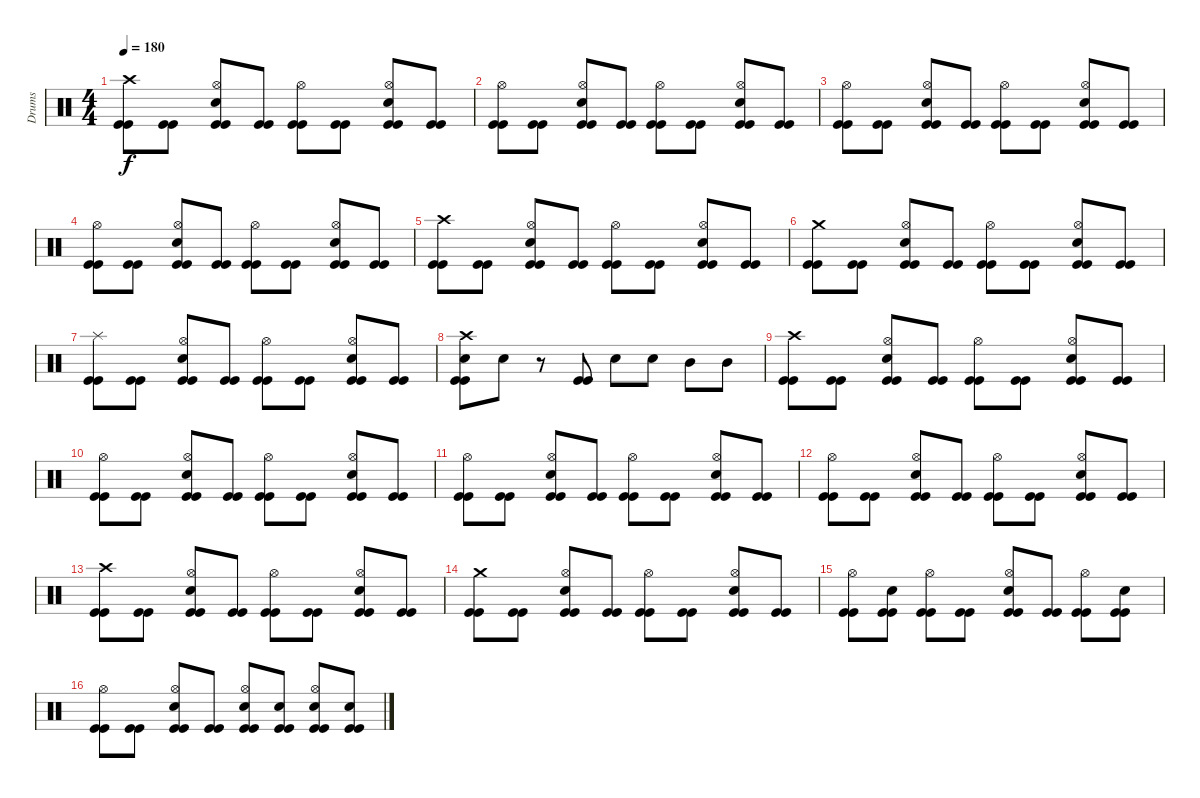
\track ("Drums" "Drums") {instrument percussion}
\staff {score}
\articulation defaults
\ts (4 4)
\tempo 180
\clef neutral
\ks c
("Crash high (hit)" "Kick (hit)" "Kick (hit)").8{dy f} ("Kick (hit)" "Kick (hit)").8 ("Hi-Hat (open)" "Kick (hit)" "Kick (hit)" "Snare (hit) 2").8 ("Kick (hit)" "Kick (hit)").8 ("Hi-Hat (open)" "Kick (hit)" "Kick (hit)").8 ("Kick (hit)" "Kick (hit)").8 ("Hi-Hat (open)" "Kick (hit)" "Kick (hit)" "Snare (hit) 2").8 ("Kick (hit)" "Kick (hit)").8 |
("Hi-Hat (open)" "Kick (hit)" "Kick (hit)").8 ("Kick (hit)" "Kick (hit)").8 ("Hi-Hat (open)" "Kick (hit)" "Kick (hit)" "Snare (hit) 2").8 ("Kick (hit)" "Kick (hit)").8 ("Hi-Hat (open)" "Kick (hit)" "Kick (hit)").8 ("Kick (hit)" "Kick (hit)").8 ("Hi-Hat (open)" "Kick (hit)" "Kick (hit)" "Snare (hit) 2").8 ("Kick (hit)" "Kick (hit)").8 |
("Hi-Hat (open)" "Kick (hit)" "Kick (hit)").8 ("Kick (hit)" "Kick (hit)").8 ("Hi-Hat (open)" "Kick (hit)" "Kick (hit)" "Snare (hit) 2").8 ("Kick (hit)" "Kick (hit)").8 ("Hi-Hat (open)" "Kick (hit)" "Kick (hit)").8 ("Kick (hit)" "Kick (hit)").8 ("Hi-Hat (open)" "Kick (hit)" "Kick (hit)" "Snare (hit) 2").8 ("Kick (hit)" "Kick (hit)").8 |
("Hi-Hat (open)" "Kick (hit)" "Kick (hit)").8 ("Kick (hit)" "Kick (hit)").8 ("Hi-Hat (open)" "Kick (hit)" "Kick (hit)" "Snare (hit) 2").8 ("Kick (hit)" "Kick (hit)").8 ("Hi-Hat (open)" "Kick (hit)" "Kick (hit)").8 ("Kick (hit)" "Kick (hit)").8 ("Hi-Hat (open)" "Kick (hit)" "Kick (hit)" "Snare (hit) 2").8 ("Kick (hit)" "Kick (hit)").8 |
("Crash high (hit)" "Kick (hit)" "Kick (hit)").8 ("Kick (hit)" "Kick (hit)").8 ("Hi-Hat (open)" "Kick (hit)" "Kick (hit)" "Snare (hit) 2").8 ("Kick (hit)" "Kick (hit)").8 ("Hi-Hat (open)" "Kick (hit)" "Kick (hit)").8 ("Kick (hit)" "Kick (hit)").8 ("Hi-Hat (open)" "Kick (hit)" "Kick (hit)" "Snare (hit) 2").8 ("Kick (hit)" "Kick (hit)").8 |
("Crash medium (hit)" "Kick (hit)" "Kick (hit)").8 ("Kick (hit)" "Kick (hit)").8 ("Hi-Hat (open)" "Kick (hit)" "Kick (hit)" "Snare (hit) 2").8 ("Kick (hit)" "Kick (hit)").8 ("Hi-Hat (open)" "Kick (hit)" "Kick (hit)").8 ("Kick (hit)" "Kick (hit)").8 ("Hi-Hat (open)" "Kick (hit)" "Kick (hit)" "Snare (hit) 2").8 ("Kick (hit)" "Kick (hit)").8 |
("Splash (hit)" "Kick (hit)" "Kick (hit)").8 ("Kick (hit)" "Kick (hit)").8 ("Hi-Hat (open)" "Kick (hit)" "Kick (hit)" "Snare (hit) 2").8 ("Kick (hit)" "Kick (hit)").8 ("Hi-Hat (open)" "Kick (hit)" "Kick (hit)").8 ("Kick (hit)" "Kick (hit)").8 ("Hi-Hat (open)" "Kick (hit)" "Kick (hit)" "Snare (hit) 2").8 ("Kick (hit)" "Kick (hit)").8 |
("Crash high (hit)" "Snare (hit) 2" "Kick (hit)" "Kick (hit)").8 "Snare (hit) 2".8 r.8 ("Kick (hit)" "Kick (hit)").8 "Snare (hit) 2".8 "Snare (hit) 2".8 "Mid Tom (hit)".8 "Mid Tom (hit)".8 |
("Crash high (hit)" "Kick (hit)" "Kick (hit)").8 ("Kick (hit)" "Kick (hit)").8 ("Hi-Hat (open)" "Kick (hit)" "Kick (hit)" "Snare (hit) 2").8 ("Kick (hit)" "Kick (hit)").8 ("Hi-Hat (open)" "Kick (hit)" "Kick (hit)").8 ("Kick (hit)" "Kick (hit)").8 ("Hi-Hat (open)" "Kick (hit)" "Kick (hit)" "Snare (hit) 2").8 ("Kick (hit)" "Kick (hit)").8 |
("Hi-Hat (open)" "Kick (hit)" "Kick (hit)").8 ("Kick (hit)" "Kick (hit)").8 ("Hi-Hat (open)" "Kick (hit)" "Kick (hit)" "Snare (hit) 2").8 ("Kick (hit)" "Kick (hit)").8 ("Hi-Hat (open)" "Kick (hit)" "Kick (hit)").8 ("Kick (hit)" "Kick (hit)").8 ("Hi-Hat (open)" "Kick (hit)" "Kick (hit)" "Snare (hit) 2").8 ("Kick (hit)" "Kick (hit)").8 |
("Hi-Hat (open)" "Kick (hit)" "Kick (hit)").8 ("Kick (hit)" "Kick (hit)").8 ("Hi-Hat (open)" "Kick (hit)" "Kick (hit)" "Snare (hit) 2").8 ("Kick (hit)" "Kick (hit)").8 ("Hi-Hat (open)" "Kick (hit)" "Kick (hit)").8 ("Kick (hit)" "Kick (hit)").8 ("Hi-Hat (open)" "Kick (hit)" "Kick (hit)" "Snare (hit) 2").8 ("Kick (hit)" "Kick (hit)").8 |
("Hi-Hat (open)" "Kick (hit)" "Kick (hit)").8 ("Kick (hit)" "Kick (hit)").8 ("Hi-Hat (open)" "Kick (hit)" "Kick (hit)" "Snare (hit) 2").8 ("Kick (hit)" "Kick (hit)").8 ("Hi-Hat (open)" "Kick (hit)" "Kick (hit)").8 ("Kick (hit)" "Kick (hit)").8 ("Hi-Hat (open)" "Kick (hit)" "Kick (hit)" "Snare (hit) 2").8 ("Kick (hit)" "Kick (hit)").8 |
("Crash high (hit)" "Kick (hit)" "Kick (hit)").8 ("Kick (hit)" "Kick (hit)").8 ("Hi-Hat (open)" "Kick (hit)" "Kick (hit)" "Snare (hit) 2").8 ("Kick (hit)" "Kick (hit)").8 ("Hi-Hat (open)" "Kick (hit)" "Kick (hit)").8 ("Kick (hit)" "Kick (hit)").8 ("Hi-Hat (open)" "Kick (hit)" "Kick (hit)" "Snare (hit) 2").8 ("Kick (hit)" "Kick (hit)").8 |
("Crash medium (hit)" "Kick (hit)" "Kick (hit)").8 ("Kick (hit)" "Kick (hit)").8 ("Hi-Hat (open)" "Kick (hit)" "Kick (hit)" "Snare (hit) 2").8 ("Kick (hit)" "Kick (hit)").8 ("Hi-Hat (open)" "Kick (hit)" "Kick (hit)").8 ("Kick (hit)" "Kick (hit)").8 ("Hi-Hat (open)" "Kick (hit)" "Kick (hit)" "Snare (hit) 2").8 ("Kick (hit)" "Kick (hit)").8 |
("Hi-Hat (open)" "Kick (hit)" "Kick (hit)").8 ("Kick (hit)" "Kick (hit)" "Snare (hit) 2").8 ("Hi-Hat (open)" "Kick (hit)" "Kick (hit)").8 ("Kick (hit)" "Kick (hit)").8 ("Hi-Hat (open)" "Kick (hit)" "Kick (hit)" "Snare (hit) 2").8 ("Kick (hit)" "Kick (hit)").8 ("Hi-Hat (open)" "Kick (hit)" "Kick (hit)").8 ("Kick (hit)" "Kick (hit)" "Snare (hit) 2").8 |
("Hi-Hat (open)" "Kick (hit)" "Kick (hit)").8 ("Kick (hit)" "Kick (hit)").8 ("Hi-Hat (open)" "Kick (hit)" "Kick (hit)" "Snare (hit) 2").8 ("Kick (hit)" "Kick (hit)").8 ("Hi-Hat (open)" "Kick (hit)" "Kick (hit)" "Snare (hit) 2").8 ("Kick (hit)" "Kick (hit)" "Snare (hit) 2").8 ("Hi-Hat (open)" "Kick (hit)" "Kick (hit)" "Snare (hit) 2").8 ("Kick (hit)" "Kick (hit)" "Snare (hit) 2").8
